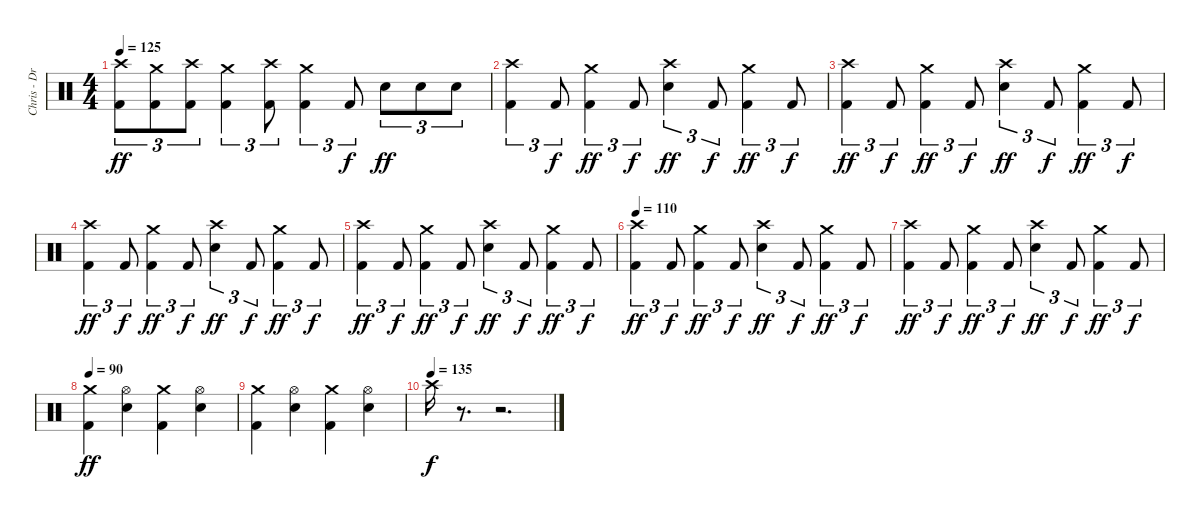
\track ("Chris - Drums" "Chris - Dr") {instrument percussion}
\staff {score}
\articulation defaults
\ts (4 4)
\tempo 125
\clef neutral
\ks c
("Crash high (hit)" "Kick (hit) 2").8{tu (3 2) dy ff} ("Crash medium (hit)" "Kick (hit) 2").8{tu (3 2)} ("Crash high (hit)" "Kick (hit) 2").8{tu (3 2)} ("Crash medium (hit)" "Kick (hit) 2").4{tu (3 2)} ("Crash high (hit)" "Kick (hit) 2").8{tu (3 2)} ("Crash medium (hit)" "Kick (hit) 2").4{tu (3 2)} "Kick (hit) 2".8{tu (3 2) dy f} "Electric Snare (hit)".8{tu (3 2) dy ff} "Electric Snare (hit)".8{tu (3 2)} "Electric Snare (hit)".8{tu (3 2)} |
("Crash high (hit)" "Kick (hit) 2").4{tu (3 2)} "Kick (hit) 2".8{tu (3 2) dy f} ("Crash medium (hit)" "Kick (hit) 2").4{tu (3 2) dy ff} "Kick (hit) 2".8{tu (3 2) dy f} ("Crash high (hit)" "Electric Snare (hit)").4{tu (3 2) dy ff} "Kick (hit) 2".8{tu (3 2) dy f} ("Crash medium (hit)" "Kick (hit) 2").4{tu (3 2) dy ff} "Kick (hit) 2".8{tu (3 2) dy f} |
("Crash high (hit)" "Kick (hit) 2").4{tu (3 2) dy ff} "Kick (hit) 2".8{tu (3 2) dy f} ("Crash medium (hit)" "Kick (hit) 2").4{tu (3 2) dy ff} "Kick (hit) 2".8{tu (3 2) dy f} ("Crash high (hit)" "Electric Snare (hit)").4{tu (3 2) dy ff} "Kick (hit) 2".8{tu (3 2) dy f} ("Crash medium (hit)" "Kick (hit) 2").4{tu (3 2) dy ff} "Kick (hit) 2".8{tu (3 2) dy f} |
("Crash high (hit)" "Kick (hit) 2").4{tu (3 2) dy ff} "Kick (hit) 2".8{tu (3 2) dy f} ("Crash medium (hit)" "Kick (hit) 2").4{tu (3 2) dy ff} "Kick (hit) 2".8{tu (3 2) dy f} ("Crash high (hit)" "Electric Snare (hit)").4{tu (3 2) dy ff} "Kick (hit) 2".8{tu (3 2) dy f} ("Crash medium (hit)" "Kick (hit) 2").4{tu (3 2) dy ff} "Kick (hit) 2".8{tu (3 2) dy f} |
("Crash high (hit)" "Kick (hit) 2").4{tu (3 2) dy ff} "Kick (hit) 2".8{tu (3 2) dy f} ("Crash medium (hit)" "Kick (hit) 2").4{tu (3 2) dy ff} "Kick (hit) 2".8{tu (3 2) dy f} ("Crash high (hit)" "Electric Snare (hit)").4{tu (3 2) dy ff} "Kick (hit) 2".8{tu (3 2) dy f} ("Crash medium (hit)" "Kick (hit) 2").4{tu (3 2) dy ff} "Kick (hit) 2".8{tu (3 2) dy f} |
\tempo 110
("Crash high (hit)" "Kick (hit) 2").4{tu (3 2) dy ff} "Kick (hit) 2".8{tu (3 2) dy f} ("Crash medium (hit)" "Kick (hit) 2").4{tu (3 2) dy ff} "Kick (hit) 2".8{tu (3 2) dy f} ("Crash high (hit)" "Electric Snare (hit)").4{tu (3 2) dy ff} "Kick (hit) 2".8{tu (3 2) dy f} ("Crash medium (hit)" "Kick (hit) 2").4{tu (3 2) dy ff} "Kick (hit) 2".8{tu (3 2) dy f} |
("Crash high (hit)" "Kick (hit) 2").4{tu (3 2) dy ff} "Kick (hit) 2".8{tu (3 2) dy f} ("Crash medium (hit)" "Kick (hit) 2").4{tu (3 2) dy ff} "Kick (hit) 2".8{tu (3 2) dy f} ("Crash high (hit)" "Electric Snare (hit)").4{tu (3 2) dy ff} "Kick (hit) 2".8{tu (3 2) dy f} ("Crash medium (hit)" "Kick (hit) 2").4{tu (3 2) dy ff} "Kick (hit) 2".8{tu (3 2) dy f} |
\tempo 90
("Crash medium (hit)" "Kick (hit) 2").4{dy ff} ("Hi-Hat (open)" "Electric Snare (hit)").4 ("Crash medium (hit)" "Kick (hit) 2").4 ("Hi-Hat (open)" "Electric Snare (hit)").4 |
("Crash medium (hit)" "Kick (hit) 2").4 ("Hi-Hat (open)" "Electric Snare (hit)").4 ("Crash medium (hit)" "Kick (hit) 2").4 ("Hi-Hat (open)" "Electric Snare (hit)").4 |
\tempo (135)
"Crash high (hit)".16{dy f} r.8{d volume 0} r.2{d volume 0}
